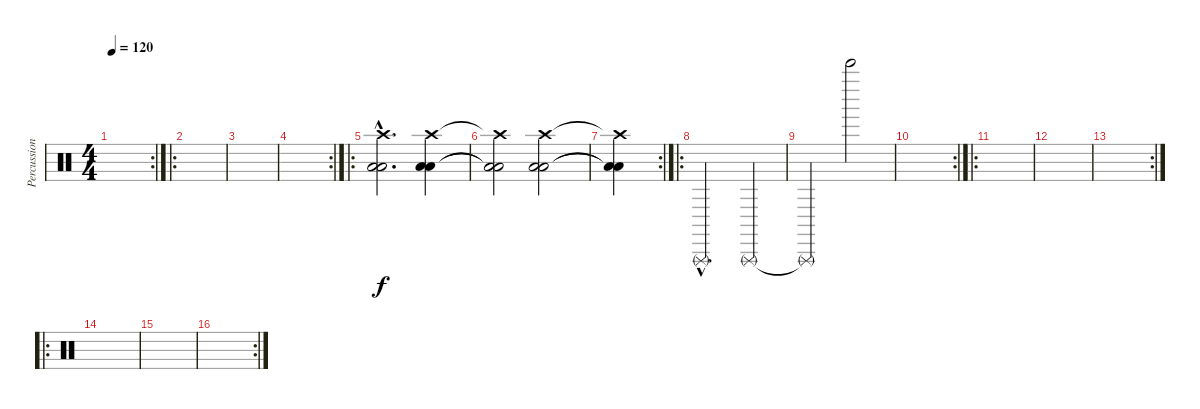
\track ("Percussions" "Percussion") {instrument percussion}
\staff {score}
\articulation defaults
\rc 2
\ts (4 4)
\tempo 120
\clef neutral
\ks c
|
\ro
|
|
\rc 2
|
\ro
("Low Tom (hit)"{hac} "Low Tom (hit)"{hac} "Crash high (hit)"{hac}).2{d} ("Low Tom (hit)" "Low Tom (hit)" "Crash high (hit)").4 |
("Low Tom (hit)"{t} "Low Tom (hit)"{t} "Crash high (hit)"{t}).2 ("Low Tom (hit)" "Low Tom (hit)" "Crash high (hit)").2 |
\rc 2
("Low Tom (hit)"{t} "Low Tom (hit)"{t} "Crash high (hit)"{t}).4 |
\ro "Triangle (rnute)"{hac}.2{d} "Triangle (rnute)".4
|
"Triangle (rnute)"{t}.2 "Bell Tree (hit)".2 |
\rc 2
|
\ro
|
|
\rc 2
|
\ro
|
|
\rc 2
